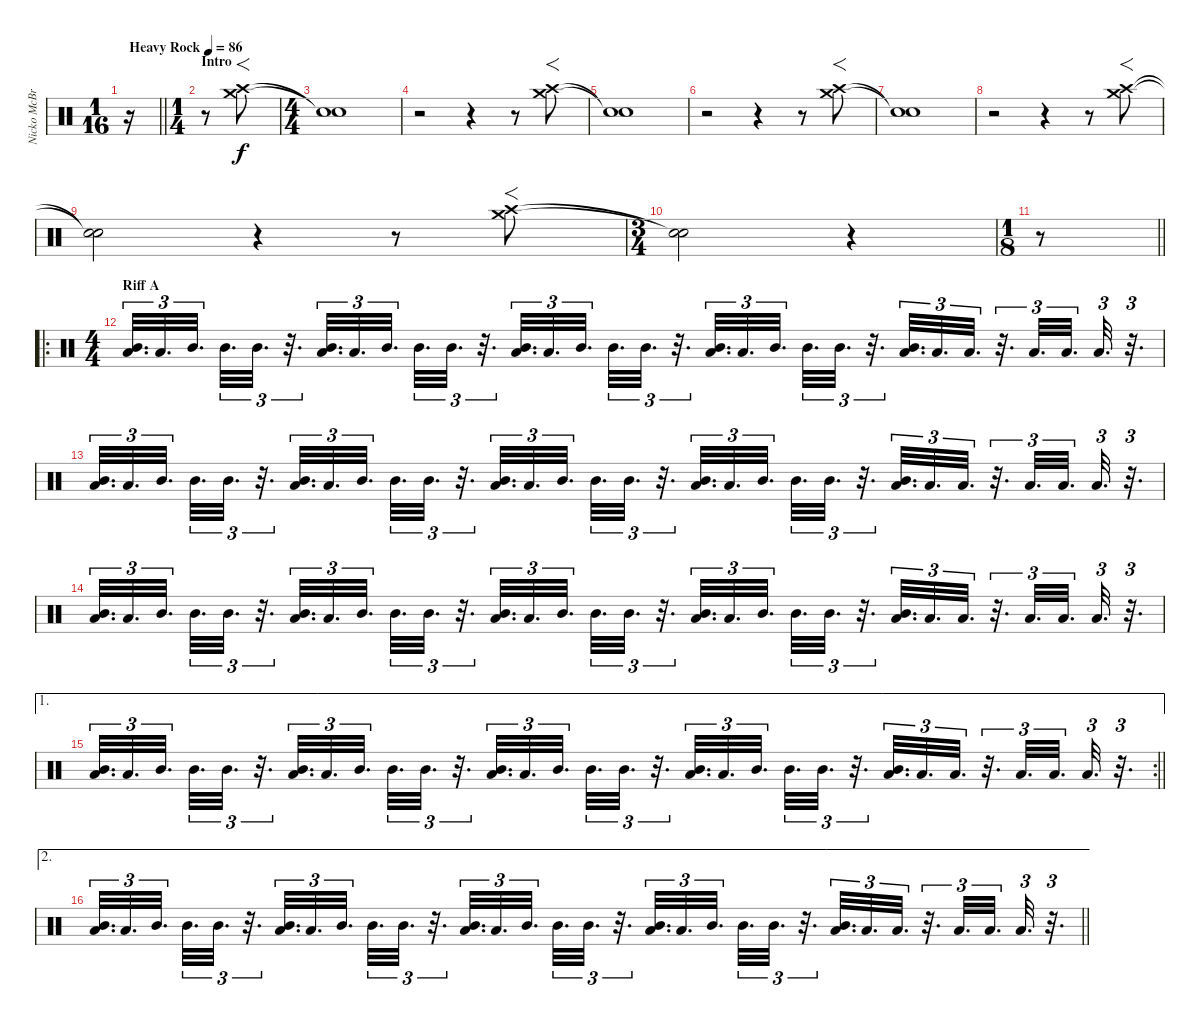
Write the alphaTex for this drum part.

\track ("Nicko McBrain" "Nicko McBr") {instrument percussion}
\staff {score}
\articulation defaults
\ts (1 16)
\tempo (86 "Heavy Rock")
\clef neutral
\barLineRight lightlight
\ks c
r.16{dy f} |
\ts (1 4)
\section ("" "Intro")
r.8 ("Crash high (hit)" "Crash medium (hit)").8{f} |
\ts (4 4)
("Snare (hit)"{t} "Snare (hit)"{t}).1 |
r.2 r.4 r.8 ("Crash high (hit)" "Crash medium (hit)").8{f} |
("Snare (hit)"{t} "Snare (hit)"{t}).1 |
r.2 r.4 r.8 ("Crash high (hit)" "Crash medium (hit)").8{f} |
("Snare (hit)"{t} "Snare (hit)"{t}).1 |
r.2 r.4 r.8 ("Crash high (hit)" "Crash medium (hit)").8{f} |
("Snare (hit)"{t} "Snare (hit)"{t}).2 r.4 r.8 ("Crash high (hit)" "Crash medium (hit)").8{f} |
\ts (3 4)
("Snare (hit)"{t} "Snare (hit)"{t}).2 r.4 |
\ts (1 8)
\barLineRight lightlight
r.8 |
\ro
\ts (4 4)
\section ("" "Riff A")
("Mid Tom (hit)" "Low Tom (hit)").32{d tu (3 2)} "Low Tom (hit)".32{d tu (3 2)} "Mid Tom (hit)".32{d tu (3 2)} "Mid Tom (hit)".32{d tu (3 2)} "Mid Tom (hit)".32{d tu (3 2)} r.32{d tu (3 2)} ("Mid Tom (hit)" "Low Tom (hit)").32{d tu (3 2)} "Low Tom (hit)".32{d tu (3 2)} "Mid Tom (hit)".32{d tu (3 2)} "Mid Tom (hit)".32{d tu (3 2)} "Mid Tom (hit)".32{d tu (3 2)} r.32{d tu (3 2)} ("Mid Tom (hit)" "Low Tom (hit)").32{d tu (3 2)} "Low Tom (hit)".32{d tu (3 2)} "Mid Tom (hit)".32{d tu (3 2)} "Mid Tom (hit)".32{d tu (3 2)} "Mid Tom (hit)".32{d tu (3 2)} r.32{d tu (3 2)} ("Mid Tom (hit)" "Low Tom (hit)").32{d tu (3 2)} "Low Tom (hit)".32{d tu (3 2)} "Mid Tom (hit)".32{d tu (3 2)} "Mid Tom (hit)".32{d tu (3 2)} "Mid Tom (hit)".32{d tu (3 2)} r.32{d tu (3 2)} ("Mid Tom (hit)" "Low Tom (hit)").32{d tu (3 2)} "Low Tom (hit)".32{d tu (3 2)} "Low Tom (hit)".32{d tu (3 2)} r.32{d tu (3 2)} "Low Tom (hit)".32{d tu (3 2)} "Low Tom (hit)".32{d tu (3 2)} "Low Tom (hit)".32{d tu (3 2)} r.32{d tu (3 2)} |
("Mid Tom (hit)" "Low Tom (hit)").32{d tu (3 2)} "Low Tom (hit)".32{d tu (3 2)} "Mid Tom (hit)".32{d tu (3 2)} "Mid Tom (hit)".32{d tu (3 2)} "Mid Tom (hit)".32{d tu (3 2)} r.32{d tu (3 2)} ("Mid Tom (hit)" "Low Tom (hit)").32{d tu (3 2)} "Low Tom (hit)".32{d tu (3 2)} "Mid Tom (hit)".32{d tu (3 2)} "Mid Tom (hit)".32{d tu (3 2)} "Mid Tom (hit)".32{d tu (3 2)} r.32{d tu (3 2)} ("Mid Tom (hit)" "Low Tom (hit)").32{d tu (3 2)} "Low Tom (hit)".32{d tu (3 2)} "Mid Tom (hit)".32{d tu (3 2)} "Mid Tom (hit)".32{d tu (3 2)} "Mid Tom (hit)".32{d tu (3 2)} r.32{d tu (3 2)} ("Mid Tom (hit)" "Low Tom (hit)").32{d tu (3 2)} "Low Tom (hit)".32{d tu (3 2)} "Mid Tom (hit)".32{d tu (3 2)} "Mid Tom (hit)".32{d tu (3 2)} "Mid Tom (hit)".32{d tu (3 2)} r.32{d tu (3 2)} ("Mid Tom (hit)" "Low Tom (hit)").32{d tu (3 2)} "Low Tom (hit)".32{d tu (3 2)} "Low Tom (hit)".32{d tu (3 2)} r.32{d tu (3 2)} "Low Tom (hit)".32{d tu (3 2)} "Low Tom (hit)".32{d tu (3 2)} "Low Tom (hit)".32{d tu (3 2)} r.32{d tu (3 2)} |
("Mid Tom (hit)" "Low Tom (hit)").32{d tu (3 2)} "Low Tom (hit)".32{d tu (3 2)} "Mid Tom (hit)".32{d tu (3 2)} "Mid Tom (hit)".32{d tu (3 2)} "Mid Tom (hit)".32{d tu (3 2)} r.32{d tu (3 2)} ("Mid Tom (hit)" "Low Tom (hit)").32{d tu (3 2)} "Low Tom (hit)".32{d tu (3 2)} "Mid Tom (hit)".32{d tu (3 2)} "Mid Tom (hit)".32{d tu (3 2)} "Mid Tom (hit)".32{d tu (3 2)} r.32{d tu (3 2)} ("Mid Tom (hit)" "Low Tom (hit)").32{d tu (3 2)} "Low Tom (hit)".32{d tu (3 2)} "Mid Tom (hit)".32{d tu (3 2)} "Mid Tom (hit)".32{d tu (3 2)} "Mid Tom (hit)".32{d tu (3 2)} r.32{d tu (3 2)} ("Mid Tom (hit)" "Low Tom (hit)").32{d tu (3 2)} "Low Tom (hit)".32{d tu (3 2)} "Mid Tom (hit)".32{d tu (3 2)} "Mid Tom (hit)".32{d tu (3 2)} "Mid Tom (hit)".32{d tu (3 2)} r.32{d tu (3 2)} ("Mid Tom (hit)" "Low Tom (hit)").32{d tu (3 2)} "Low Tom (hit)".32{d tu (3 2)} "Low Tom (hit)".32{d tu (3 2)} r.32{d tu (3 2)} "Low Tom (hit)".32{d tu (3 2)} "Low Tom (hit)".32{d tu (3 2)} "Low Tom (hit)".32{d tu (3 2)} r.32{d tu (3 2)} |
\ae 1
\rc 2
\barLineRight lightlight
("Mid Tom (hit)" "Low Tom (hit)").32{d tu (3 2)} "Low Tom (hit)".32{d tu (3 2)} "Mid Tom (hit)".32{d tu (3 2)} "Mid Tom (hit)".32{d tu (3 2)} "Mid Tom (hit)".32{d tu (3 2)} r.32{d tu (3 2)} ("Mid Tom (hit)" "Low Tom (hit)").32{d tu (3 2)} "Low Tom (hit)".32{d tu (3 2)} "Mid Tom (hit)".32{d tu (3 2)} "Mid Tom (hit)".32{d tu (3 2)} "Mid Tom (hit)".32{d tu (3 2)} r.32{d tu (3 2)} ("Mid Tom (hit)" "Low Tom (hit)").32{d tu (3 2)} "Low Tom (hit)".32{d tu (3 2)} "Mid Tom (hit)".32{d tu (3 2)} "Mid Tom (hit)".32{d tu (3 2)} "Mid Tom (hit)".32{d tu (3 2)} r.32{d tu (3 2)} ("Mid Tom (hit)" "Low Tom (hit)").32{d tu (3 2)} "Low Tom (hit)".32{d tu (3 2)} "Mid Tom (hit)".32{d tu (3 2)} "Mid Tom (hit)".32{d tu (3 2)} "Mid Tom (hit)".32{d tu (3 2)} r.32{d tu (3 2)} ("Mid Tom (hit)" "Low Tom (hit)").32{d tu (3 2)} "Low Tom (hit)".32{d tu (3 2)} "Low Tom (hit)".32{d tu (3 2)} r.32{d tu (3 2)} "Low Tom (hit)".32{d tu (3 2)} "Low Tom (hit)".32{d tu (3 2)} "Low Tom (hit)".32{d tu (3 2)} r.32{d tu (3 2)} |
\ae 2
\barLineRight lightlight
("Mid Tom (hit)" "Low Tom (hit)").32{d tu (3 2)} "Low Tom (hit)".32{d tu (3 2)} "Mid Tom (hit)".32{d tu (3 2)} "Mid Tom (hit)".32{d tu (3 2)} "Mid Tom (hit)".32{d tu (3 2)} r.32{d tu (3 2)} ("Mid Tom (hit)" "Low Tom (hit)").32{d tu (3 2)} "Low Tom (hit)".32{d tu (3 2)} "Mid Tom (hit)".32{d tu (3 2)} "Mid Tom (hit)".32{d tu (3 2)} "Mid Tom (hit)".32{d tu (3 2)} r.32{d tu (3 2)} ("Mid Tom (hit)" "Low Tom (hit)").32{d tu (3 2)} "Low Tom (hit)".32{d tu (3 2)} "Mid Tom (hit)".32{d tu (3 2)} "Mid Tom (hit)".32{d tu (3 2)} "Mid Tom (hit)".32{d tu (3 2)} r.32{d tu (3 2)} ("Mid Tom (hit)" "Low Tom (hit)").32{d tu (3 2)} "Low Tom (hit)".32{d tu (3 2)} "Mid Tom (hit)".32{d tu (3 2)} "Mid Tom (hit)".32{d tu (3 2)} "Mid Tom (hit)".32{d tu (3 2)} r.32{d tu (3 2)} ("Mid Tom (hit)" "Low Tom (hit)").32{d tu (3 2)} "Low Tom (hit)".32{d tu (3 2)} "Low Tom (hit)".32{d tu (3 2)} r.32{d tu (3 2)} "Low Tom (hit)".32{d tu (3 2)} "Low Tom (hit)".32{d tu (3 2)} "Low Tom (hit)".32{d tu (3 2)} r.32{d tu (3 2)}
